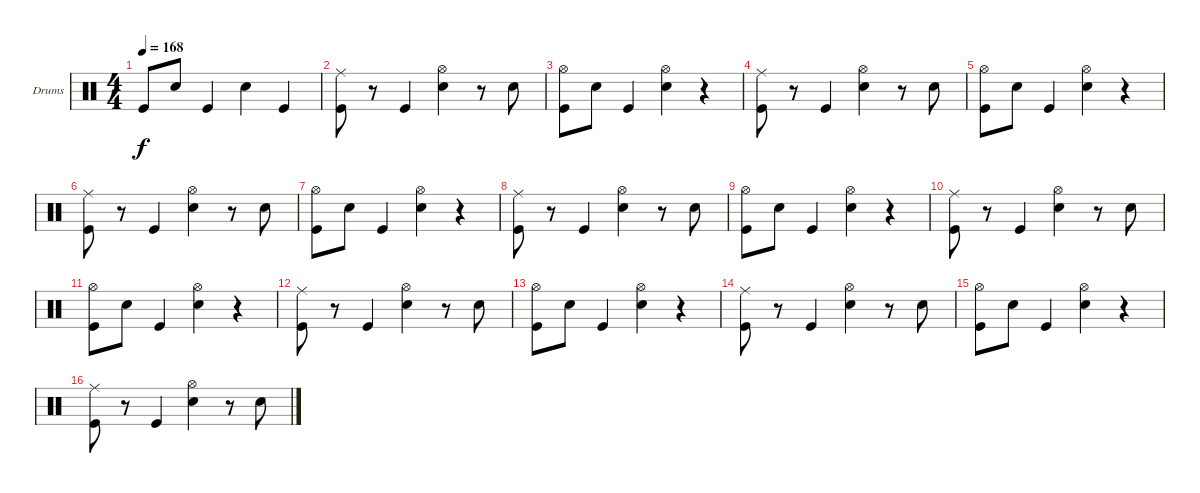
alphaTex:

\defaultSystemsLayout 4
\bracketExtendMode groupsimilarinstruments
\firstSystemTrackNameOrientation horizontal
\otherSystemsTrackNameOrientation horizontal
\track ("Е. Кулаков" "Drums") {instrument percussion}
\staff {score}
\articulation defaults
\ts (4 4)
\tempo 168
\clef neutral
\scale
0.333333
\ks c "Kick (hit)".8{dy f} "Snare (hit) 2".8 "Kick (hit)".4 "Snare (hit) 2".4 "Kick (hit)".4
|
\scale
0.333333 ("Kick (hit)" "Ride (middle)").8 r.8 "Kick (hit)".4 ("Snare (hit) 2" "Hi-Hat (open)").4 r.8 "Snare (hit) 2".8 |
\scale
0.333333 ("Kick (hit)" "Hi-Hat (open)").8 "Snare (hit) 2".8 "Kick (hit)".4 ("Snare (hit) 2" "Hi-Hat (open)").4 r.4 |
\scale
0.333333 ("Kick (hit)" "Ride (middle)").8 r.8 "Kick (hit)".4 ("Snare (hit) 2" "Hi-Hat (open)").4 r.8 "Snare (hit) 2".8 |
\scale
0.333333 ("Kick (hit)" "Hi-Hat (open)").8 "Snare (hit) 2".8 "Kick (hit)".4 ("Snare (hit) 2" "Hi-Hat (open)").4 r.4 |
\scale
0.333333 ("Kick (hit)" "Ride (middle)").8 r.8 "Kick (hit)".4 ("Snare (hit) 2" "Hi-Hat (open)").4 r.8 "Snare (hit) 2".8 |
\scale
0.333333 ("Kick (hit)" "Hi-Hat (open)").8 "Snare (hit) 2".8 "Kick (hit)".4 ("Snare (hit) 2" "Hi-Hat (open)").4 r.4 |
\scale
0.333333 ("Kick (hit)" "Ride (middle)").8 r.8 "Kick (hit)".4 ("Snare (hit) 2" "Hi-Hat (open)").4 r.8 "Snare (hit) 2".8 |
\scale
0.333333 ("Kick (hit)" "Hi-Hat (open)").8 "Snare (hit) 2".8 "Kick (hit)".4 ("Snare (hit) 2" "Hi-Hat (open)").4 r.4 |
\scale
0.333333 ("Kick (hit)" "Ride (middle)").8 r.8 "Kick (hit)".4 ("Snare (hit) 2" "Hi-Hat (open)").4 r.8 "Snare (hit) 2".8 |
\scale
0.333333 ("Kick (hit)" "Hi-Hat (open)").8 "Snare (hit) 2".8 "Kick (hit)".4 ("Snare (hit) 2" "Hi-Hat (open)").4 r.4 |
\scale
0.333333 ("Kick (hit)" "Ride (middle)").8 r.8 "Kick (hit)".4 ("Snare (hit) 2" "Hi-Hat (open)").4 r.8 "Snare (hit) 2".8 |
\scale
0.333333 ("Kick (hit)" "Hi-Hat (open)").8 "Snare (hit) 2".8 "Kick (hit)".4 ("Snare (hit) 2" "Hi-Hat (open)").4 r.4 |
\scale
0.333333 ("Kick (hit)" "Ride (middle)").8 r.8 "Kick (hit)".4 ("Snare (hit) 2" "Hi-Hat (open)").4 r.8 "Snare (hit) 2".8 |
\scale
0.333333 ("Kick (hit)" "Hi-Hat (open)").8 "Snare (hit) 2".8 "Kick (hit)".4 ("Snare (hit) 2" "Hi-Hat (open)").4 r.4 |
("Kick (hit)" "Ride (middle)").8 r.8 "Kick (hit)".4 ("Snare (hit) 2" "Hi-Hat (open)").4 r.8 "Snare (hit) 2".8
